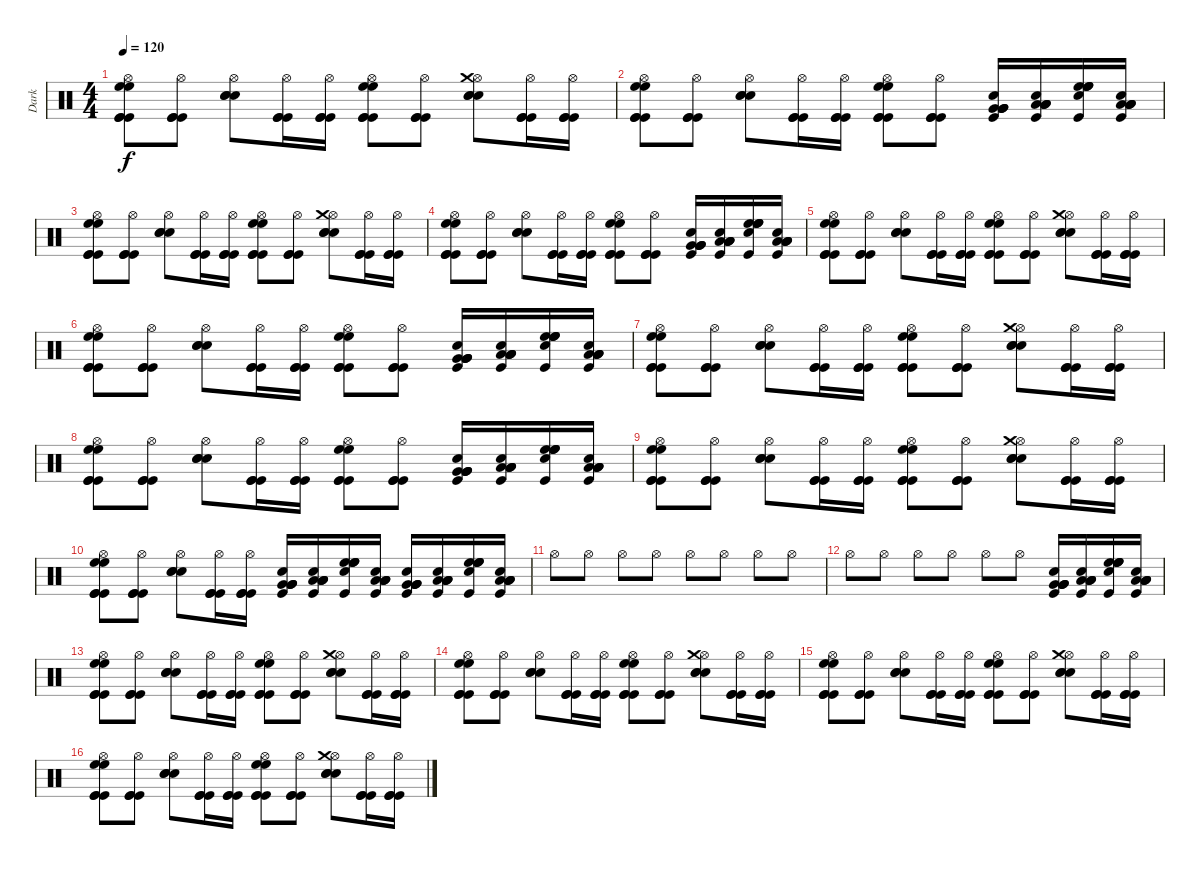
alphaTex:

\track ("Dark" "Dark") {instrument percussion}
\staff {score}
\articulation defaults
\ts (4 4)
\tempo 120
\clef neutral
\ks c
("Hi-Hat (open)" "High Floor Tom (hit)" "High Floor Tom (hit)" "Kick (hit)" "Kick (hit)" "Kick (hit)").8{dy f} ("Hi-Hat (open)" "Kick (hit)" "Kick (hit)" "Kick (hit)").8 ("Hi-Hat (open)" "Snare (hit) 2" "Snare (hit) 2" "Snare (hit) 2").8 ("Hi-Hat (open)" "Kick (hit)" "Kick (hit)" "Kick (hit)").16 ("Hi-Hat (open)" "Kick (hit)" "Kick (hit)" "Kick (hit)").16 ("Hi-Hat (open)" "High Floor Tom (hit)" "High Floor Tom (hit)" "Kick (hit)" "Kick (hit)" "Kick (hit)").8 ("Hi-Hat (open)" "Kick (hit)" "Kick (hit)" "Kick (hit)").8 ("Hi-Hat (open)" "Crash medium (hit)" "Snare (hit) 2" "Snare (hit) 2" "Snare (hit) 2").8 ("Hi-Hat (open)" "Kick (hit)" "Kick (hit)" "Kick (hit)").16 ("Hi-Hat (open)" "Kick (hit)" "Kick (hit)" "Kick (hit)").16 |
("Hi-Hat (open)" "High Floor Tom (hit)" "High Floor Tom (hit)" "Kick (hit)" "Kick (hit)" "Kick (hit)").8 ("Hi-Hat (open)" "Kick (hit)" "Kick (hit)" "Kick (hit)").8 ("Hi-Hat (open)" "Snare (hit) 2" "Snare (hit) 2" "Snare (hit) 2").8 ("Hi-Hat (open)" "Kick (hit)" "Kick (hit)" "Kick (hit)").16 ("Hi-Hat (open)" "Kick (hit)" "Kick (hit)" "Kick (hit)").16 ("Hi-Hat (open)" "High Floor Tom (hit)" "High Floor Tom (hit)" "Kick (hit)" "Kick (hit)" "Kick (hit)").8 ("Hi-Hat (open)" "Kick (hit)" "Kick (hit)" "Kick (hit)").8 ("Very Low Tom (hit)" "Very Low Tom (hit)" "Very Low Tom (hit)" "Very Low Tom (hit)" "Snare (hit) 2" "Kick (hit)").16 ("Low Tom (hit)" "Low Tom (hit)" "Low Tom (hit)" "Low Tom (hit)" "Snare (hit) 2" "Kick (hit)").16 ("High Floor Tom (hit)" "High Floor Tom (hit)" "High Floor Tom (hit)" "High Floor Tom (hit)" "Snare (hit) 2" "Kick (hit)").16 ("Low Tom (hit)" "Low Tom (hit)" "Low Tom (hit)" "Low Tom (hit)" "Snare (hit) 2" "Kick (hit)").16 |
("Hi-Hat (open)" "High Floor Tom (hit)" "High Floor Tom (hit)" "Kick (hit)" "Kick (hit)" "Kick (hit)").8 ("Hi-Hat (open)" "Kick (hit)" "Kick (hit)" "Kick (hit)").8 ("Hi-Hat (open)" "Snare (hit) 2" "Snare (hit) 2" "Snare (hit) 2").8 ("Hi-Hat (open)" "Kick (hit)" "Kick (hit)" "Kick (hit)").16 ("Hi-Hat (open)" "Kick (hit)" "Kick (hit)" "Kick (hit)").16 ("Hi-Hat (open)" "High Floor Tom (hit)" "High Floor Tom (hit)" "Kick (hit)" "Kick (hit)" "Kick (hit)").8 ("Hi-Hat (open)" "Kick (hit)" "Kick (hit)" "Kick (hit)").8 ("Hi-Hat (open)" "Crash medium (hit)" "Snare (hit) 2" "Snare (hit) 2" "Snare (hit) 2").8 ("Hi-Hat (open)" "Kick (hit)" "Kick (hit)" "Kick (hit)").16 ("Hi-Hat (open)" "Kick (hit)" "Kick (hit)" "Kick (hit)").16 |
("Hi-Hat (open)" "High Floor Tom (hit)" "High Floor Tom (hit)" "Kick (hit)" "Kick (hit)" "Kick (hit)").8 ("Hi-Hat (open)" "Kick (hit)" "Kick (hit)" "Kick (hit)").8 ("Hi-Hat (open)" "Snare (hit) 2" "Snare (hit) 2" "Snare (hit) 2").8 ("Hi-Hat (open)" "Kick (hit)" "Kick (hit)" "Kick (hit)").16 ("Hi-Hat (open)" "Kick (hit)" "Kick (hit)" "Kick (hit)").16 ("Hi-Hat (open)" "High Floor Tom (hit)" "High Floor Tom (hit)" "Kick (hit)" "Kick (hit)" "Kick (hit)").8 ("Hi-Hat (open)" "Kick (hit)" "Kick (hit)" "Kick (hit)").8 ("Very Low Tom (hit)" "Very Low Tom (hit)" "Very Low Tom (hit)" "Very Low Tom (hit)" "Snare (hit) 2" "Kick (hit)").16 ("Low Tom (hit)" "Low Tom (hit)" "Low Tom (hit)" "Low Tom (hit)" "Snare (hit) 2" "Kick (hit)").16 ("High Floor Tom (hit)" "High Floor Tom (hit)" "High Floor Tom (hit)" "High Floor Tom (hit)" "Snare (hit) 2" "Kick (hit)").16 ("Low Tom (hit)" "Low Tom (hit)" "Low Tom (hit)" "Low Tom (hit)" "Snare (hit) 2" "Kick (hit)").16 |
("Hi-Hat (open)" "High Floor Tom (hit)" "High Floor Tom (hit)" "Kick (hit)" "Kick (hit)" "Kick (hit)").8 ("Hi-Hat (open)" "Kick (hit)" "Kick (hit)" "Kick (hit)").8 ("Hi-Hat (open)" "Snare (hit) 2" "Snare (hit) 2" "Snare (hit) 2").8 ("Hi-Hat (open)" "Kick (hit)" "Kick (hit)" "Kick (hit)").16 ("Hi-Hat (open)" "Kick (hit)" "Kick (hit)" "Kick (hit)").16 ("Hi-Hat (open)" "High Floor Tom (hit)" "High Floor Tom (hit)" "Kick (hit)" "Kick (hit)" "Kick (hit)").8 ("Hi-Hat (open)" "Kick (hit)" "Kick (hit)" "Kick (hit)").8 ("Hi-Hat (open)" "Crash medium (hit)" "Snare (hit) 2" "Snare (hit) 2" "Snare (hit) 2").8 ("Hi-Hat (open)" "Kick (hit)" "Kick (hit)" "Kick (hit)").16 ("Hi-Hat (open)" "Kick (hit)" "Kick (hit)" "Kick (hit)").16 |
("Hi-Hat (open)" "High Floor Tom (hit)" "High Floor Tom (hit)" "Kick (hit)" "Kick (hit)" "Kick (hit)").8 ("Hi-Hat (open)" "Kick (hit)" "Kick (hit)" "Kick (hit)").8 ("Hi-Hat (open)" "Snare (hit) 2" "Snare (hit) 2" "Snare (hit) 2").8 ("Hi-Hat (open)" "Kick (hit)" "Kick (hit)" "Kick (hit)").16 ("Hi-Hat (open)" "Kick (hit)" "Kick (hit)" "Kick (hit)").16 ("Hi-Hat (open)" "High Floor Tom (hit)" "High Floor Tom (hit)" "Kick (hit)" "Kick (hit)" "Kick (hit)").8 ("Hi-Hat (open)" "Kick (hit)" "Kick (hit)" "Kick (hit)").8 ("Very Low Tom (hit)" "Very Low Tom (hit)" "Very Low Tom (hit)" "Very Low Tom (hit)" "Snare (hit) 2" "Kick (hit)").16 ("Low Tom (hit)" "Low Tom (hit)" "Low Tom (hit)" "Low Tom (hit)" "Snare (hit) 2" "Kick (hit)").16 ("High Floor Tom (hit)" "High Floor Tom (hit)" "High Floor Tom (hit)" "High Floor Tom (hit)" "Snare (hit) 2" "Kick (hit)").16 ("Low Tom (hit)" "Low Tom (hit)" "Low Tom (hit)" "Low Tom (hit)" "Snare (hit) 2" "Kick (hit)").16 |
("Hi-Hat (open)" "High Floor Tom (hit)" "High Floor Tom (hit)" "Kick (hit)" "Kick (hit)" "Kick (hit)").8 ("Hi-Hat (open)" "Kick (hit)" "Kick (hit)" "Kick (hit)").8 ("Hi-Hat (open)" "Snare (hit) 2" "Snare (hit) 2" "Snare (hit) 2").8 ("Hi-Hat (open)" "Kick (hit)" "Kick (hit)" "Kick (hit)").16 ("Hi-Hat (open)" "Kick (hit)" "Kick (hit)" "Kick (hit)").16 ("Hi-Hat (open)" "High Floor Tom (hit)" "High Floor Tom (hit)" "Kick (hit)" "Kick (hit)" "Kick (hit)").8 ("Hi-Hat (open)" "Kick (hit)" "Kick (hit)" "Kick (hit)").8 ("Hi-Hat (open)" "Crash medium (hit)" "Snare (hit) 2" "Snare (hit) 2" "Snare (hit) 2").8 ("Hi-Hat (open)" "Kick (hit)" "Kick (hit)" "Kick (hit)").16 ("Hi-Hat (open)" "Kick (hit)" "Kick (hit)" "Kick (hit)").16 |
("Hi-Hat (open)" "High Floor Tom (hit)" "High Floor Tom (hit)" "Kick (hit)" "Kick (hit)" "Kick (hit)").8 ("Hi-Hat (open)" "Kick (hit)" "Kick (hit)" "Kick (hit)").8 ("Hi-Hat (open)" "Snare (hit) 2" "Snare (hit) 2" "Snare (hit) 2").8 ("Hi-Hat (open)" "Kick (hit)" "Kick (hit)" "Kick (hit)").16 ("Hi-Hat (open)" "Kick (hit)" "Kick (hit)" "Kick (hit)").16 ("Hi-Hat (open)" "High Floor Tom (hit)" "High Floor Tom (hit)" "Kick (hit)" "Kick (hit)" "Kick (hit)").8 ("Hi-Hat (open)" "Kick (hit)" "Kick (hit)" "Kick (hit)").8 ("Very Low Tom (hit)" "Very Low Tom (hit)" "Very Low Tom (hit)" "Very Low Tom (hit)" "Snare (hit) 2" "Kick (hit)").16 ("Low Tom (hit)" "Low Tom (hit)" "Low Tom (hit)" "Low Tom (hit)" "Snare (hit) 2" "Kick (hit)").16 ("High Floor Tom (hit)" "High Floor Tom (hit)" "High Floor Tom (hit)" "High Floor Tom (hit)" "Snare (hit) 2" "Kick (hit)").16 ("Low Tom (hit)" "Low Tom (hit)" "Low Tom (hit)" "Low Tom (hit)" "Snare (hit) 2" "Kick (hit)").16 |
("Hi-Hat (open)" "High Floor Tom (hit)" "High Floor Tom (hit)" "Kick (hit)" "Kick (hit)" "Kick (hit)").8 ("Hi-Hat (open)" "Kick (hit)" "Kick (hit)" "Kick (hit)").8 ("Hi-Hat (open)" "Snare (hit) 2" "Snare (hit) 2" "Snare (hit) 2").8 ("Hi-Hat (open)" "Kick (hit)" "Kick (hit)" "Kick (hit)").16 ("Hi-Hat (open)" "Kick (hit)" "Kick (hit)" "Kick (hit)").16 ("Hi-Hat (open)" "High Floor Tom (hit)" "High Floor Tom (hit)" "Kick (hit)" "Kick (hit)" "Kick (hit)").8 ("Hi-Hat (open)" "Kick (hit)" "Kick (hit)" "Kick (hit)").8 ("Hi-Hat (open)" "Crash medium (hit)" "Snare (hit) 2" "Snare (hit) 2" "Snare (hit) 2").8 ("Hi-Hat (open)" "Kick (hit)" "Kick (hit)" "Kick (hit)").16 ("Hi-Hat (open)" "Kick (hit)" "Kick (hit)" "Kick (hit)").16 |
("Hi-Hat (open)" "High Floor Tom (hit)" "High Floor Tom (hit)" "Kick (hit)" "Kick (hit)" "Kick (hit)").8 ("Hi-Hat (open)" "Kick (hit)" "Kick (hit)" "Kick (hit)").8 ("Hi-Hat (open)" "Snare (hit) 2" "Snare (hit) 2" "Snare (hit) 2").8 ("Hi-Hat (open)" "Kick (hit)" "Kick (hit)" "Kick (hit)").16 ("Hi-Hat (open)" "Kick (hit)" "Kick (hit)" "Kick (hit)").16 ("Very Low Tom (hit)" "Very Low Tom (hit)" "Very Low Tom (hit)" "Very Low Tom (hit)" "Snare (hit) 2" "Kick (hit)").16 ("Low Tom (hit)" "Low Tom (hit)" "Low Tom (hit)" "Low Tom (hit)" "Snare (hit) 2" "Kick (hit)").16 ("High Floor Tom (hit)" "High Floor Tom (hit)" "High Floor Tom (hit)" "High Floor Tom (hit)" "Snare (hit) 2" "Kick (hit)").16 ("Low Tom (hit)" "Low Tom (hit)" "Low Tom (hit)" "Low Tom (hit)" "Snare (hit) 2" "Kick (hit)").16 ("Very Low Tom (hit)" "Very Low Tom (hit)" "Very Low Tom (hit)" "Very Low Tom (hit)" "Snare (hit) 2" "Kick (hit)").16 ("Low Tom (hit)" "Low Tom (hit)" "Low Tom (hit)" "Low Tom (hit)" "Snare (hit) 2" "Kick (hit)").16 ("High Floor Tom (hit)" "High Floor Tom (hit)" "High Floor Tom (hit)" "High Floor Tom (hit)" "Snare (hit) 2" "Kick (hit)").16 ("Low Tom (hit)" "Low Tom (hit)" "Low Tom (hit)" "Low Tom (hit)" "Snare (hit) 2" "Kick (hit)").16 |
"Hi-Hat (open)".8 "Hi-Hat (open)".8 "Hi-Hat (open)".8 "Hi-Hat (open)".8 "Hi-Hat (open)".8 "Hi-Hat (open)".8 "Hi-Hat (open)".8 "Hi-Hat (open)".8 |
"Hi-Hat (open)".8 "Hi-Hat (open)".8 "Hi-Hat (open)".8 "Hi-Hat (open)".8 "Hi-Hat (open)".8 "Hi-Hat (open)".8 ("Very Low Tom (hit)" "Very Low Tom (hit)" "Very Low Tom (hit)" "Very Low Tom (hit)" "Snare (hit) 2" "Kick (hit)").16 ("Low Tom (hit)" "Low Tom (hit)" "Low Tom (hit)" "Low Tom (hit)" "Snare (hit) 2" "Kick (hit)").16 ("High Floor Tom (hit)" "High Floor Tom (hit)" "High Floor Tom (hit)" "High Floor Tom (hit)" "Snare (hit) 2" "Kick (hit)").16 ("Low Tom (hit)" "Low Tom (hit)" "Low Tom (hit)" "Low Tom (hit)" "Snare (hit) 2" "Kick (hit)").16 |
("Hi-Hat (open)" "High Floor Tom (hit)" "High Floor Tom (hit)" "Kick (hit)" "Kick (hit)" "Kick (hit)").8 ("Hi-Hat (open)" "Kick (hit)" "Kick (hit)" "Kick (hit)").8 ("Hi-Hat (open)" "Snare (hit) 2" "Snare (hit) 2" "Snare (hit) 2").8 ("Hi-Hat (open)" "Kick (hit)" "Kick (hit)" "Kick (hit)").16 ("Hi-Hat (open)" "Kick (hit)" "Kick (hit)" "Kick (hit)").16 ("Hi-Hat (open)" "High Floor Tom (hit)" "High Floor Tom (hit)" "Kick (hit)" "Kick (hit)" "Kick (hit)").8 ("Hi-Hat (open)" "Kick (hit)" "Kick (hit)" "Kick (hit)").8 ("Hi-Hat (open)" "Crash medium (hit)" "Snare (hit) 2" "Snare (hit) 2" "Snare (hit) 2").8 ("Hi-Hat (open)" "Kick (hit)" "Kick (hit)" "Kick (hit)").16 ("Hi-Hat (open)" "Kick (hit)" "Kick (hit)" "Kick (hit)").16 |
("Hi-Hat (open)" "High Floor Tom (hit)" "High Floor Tom (hit)" "Kick (hit)" "Kick (hit)" "Kick (hit)").8 ("Hi-Hat (open)" "Kick (hit)" "Kick (hit)" "Kick (hit)").8 ("Hi-Hat (open)" "Snare (hit) 2" "Snare (hit) 2" "Snare (hit) 2").8 ("Hi-Hat (open)" "Kick (hit)" "Kick (hit)" "Kick (hit)").16 ("Hi-Hat (open)" "Kick (hit)" "Kick (hit)" "Kick (hit)").16 ("Hi-Hat (open)" "High Floor Tom (hit)" "High Floor Tom (hit)" "Kick (hit)" "Kick (hit)" "Kick (hit)").8 ("Hi-Hat (open)" "Kick (hit)" "Kick (hit)" "Kick (hit)").8 ("Hi-Hat (open)" "Crash medium (hit)" "Snare (hit) 2" "Snare (hit) 2" "Snare (hit) 2").8 ("Hi-Hat (open)" "Kick (hit)" "Kick (hit)" "Kick (hit)").16 ("Hi-Hat (open)" "Kick (hit)" "Kick (hit)" "Kick (hit)").16 |
("Hi-Hat (open)" "High Floor Tom (hit)" "High Floor Tom (hit)" "Kick (hit)" "Kick (hit)" "Kick (hit)").8 ("Hi-Hat (open)" "Kick (hit)" "Kick (hit)" "Kick (hit)").8 ("Hi-Hat (open)" "Snare (hit) 2" "Snare (hit) 2" "Snare (hit) 2").8 ("Hi-Hat (open)" "Kick (hit)" "Kick (hit)" "Kick (hit)").16 ("Hi-Hat (open)" "Kick (hit)" "Kick (hit)" "Kick (hit)").16 ("Hi-Hat (open)" "High Floor Tom (hit)" "High Floor Tom (hit)" "Kick (hit)" "Kick (hit)" "Kick (hit)").8 ("Hi-Hat (open)" "Kick (hit)" "Kick (hit)" "Kick (hit)").8 ("Hi-Hat (open)" "Crash medium (hit)" "Snare (hit) 2" "Snare (hit) 2" "Snare (hit) 2").8 ("Hi-Hat (open)" "Kick (hit)" "Kick (hit)" "Kick (hit)").16 ("Hi-Hat (open)" "Kick (hit)" "Kick (hit)" "Kick (hit)").16 |
("Hi-Hat (open)" "High Floor Tom (hit)" "High Floor Tom (hit)" "Kick (hit)" "Kick (hit)" "Kick (hit)").8 ("Hi-Hat (open)" "Kick (hit)" "Kick (hit)" "Kick (hit)").8 ("Hi-Hat (open)" "Snare (hit) 2" "Snare (hit) 2" "Snare (hit) 2").8 ("Hi-Hat (open)" "Kick (hit)" "Kick (hit)" "Kick (hit)").16 ("Hi-Hat (open)" "Kick (hit)" "Kick (hit)" "Kick (hit)").16 ("Hi-Hat (open)" "High Floor Tom (hit)" "High Floor Tom (hit)" "Kick (hit)" "Kick (hit)" "Kick (hit)").8 ("Hi-Hat (open)" "Kick (hit)" "Kick (hit)" "Kick (hit)").8 ("Hi-Hat (open)" "Crash medium (hit)" "Snare (hit) 2" "Snare (hit) 2" "Snare (hit) 2").8 ("Hi-Hat (open)" "Kick (hit)" "Kick (hit)" "Kick (hit)").16 ("Hi-Hat (open)" "Kick (hit)" "Kick (hit)" "Kick (hit)").16
